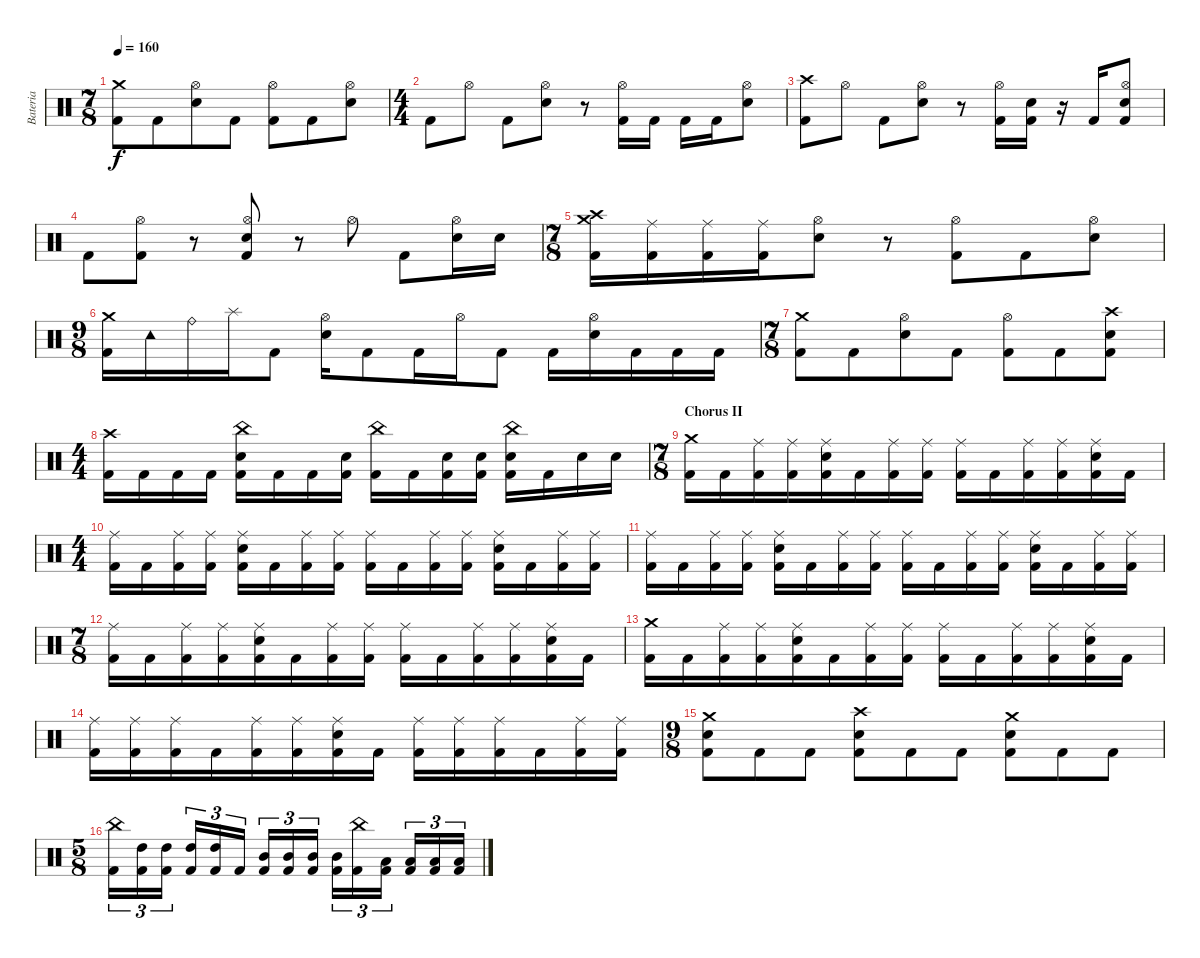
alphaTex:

\track ("Bateria" "Bateria") {instrument percussion}
\staff {score}
\articulation defaults
\ts (7 8)
\tempo 160
\clef neutral
\ks c
("Crash medium (hit)" "Kick (hit) 2").8{dy f} "Kick (hit) 2".8 ("Hi-Hat (open)" "Electric Snare (hit)").8 "Kick (hit) 2".8 ("Hi-Hat (open)" "Kick (hit) 2").8 "Kick (hit) 2".8 ("Hi-Hat (open)" "Electric Snare (hit)").8 |
\ts (4 4)
"Kick (hit) 2".8 "Hi-Hat (open)".8 "Kick (hit) 2".8 ("Hi-Hat (open)" "Electric Snare (hit)").8 r.8 ("Hi-Hat (open)" "Kick (hit) 2").16 "Kick (hit) 2".16 "Kick (hit) 2".16 "Kick (hit) 2".16 ("Hi-Hat (open)" "Electric Snare (hit)").8 |
("Crash high (hit)" "Kick (hit) 2").8 "Hi-Hat (open)".8 "Kick (hit) 2".8 ("Hi-Hat (open)" "Electric Snare (hit)").8 r.8 ("Hi-Hat (open)" "Kick (hit) 2").16 ("Electric Snare (hit)" "Kick (hit) 2").16 r.16 "Kick (hit) 2".16 ("Hi-Hat (open)" "Electric Snare (hit)" "Kick (hit) 2").8 |
"Kick (hit) 2".8 ("Hi-Hat (open)" "Kick (hit) 2").8 r.8 ("Hi-Hat (open)" "Electric Snare (hit)" "Kick (hit) 2").8 r.8 "Hi-Hat (open)".8 "Kick (hit) 2".8 ("Hi-Hat (open)" "Electric Snare (hit)").16 "Electric Snare (hit)".16 |
\ts (7 8)
("Crash medium (hit)" "Crash high (hit)" "Kick (hit) 2").16 ("Ride (middle)" "Kick (hit) 2").16 ("Ride (middle)" "Kick (hit) 2").16 ("Ride (middle)" "Kick (hit) 2").16 ("Hi-Hat (open)" "Electric Snare (hit)").8 r.8 ("Hi-Hat (open)" "Kick (hit) 2").8 "Kick (hit) 2".8 ("Hi-Hat (open)" "Electric Snare (hit)").8 |
\ts (9 8)
("Crash medium (hit)" "Kick (hit) 2").16 "Tambourine (hit)".16 "Ride (bell)".16 "Splash (hit)".16 "Kick (hit) 2".8 ("Hi-Hat (open)" "Electric Snare (hit)").16 "Kick (hit) 2".8 "Kick (hit) 2".16 "Hi-Hat (open)".16 "Kick (hit) 2".8 "Kick (hit) 2".16 ("Hi-Hat (open)" "Electric Snare (hit)").16 "Kick (hit) 2".16 "Kick (hit) 2".16 "Kick (hit) 2".16 |
\ts (7 8)
("Crash medium (hit)" "Kick (hit) 2").8 "Kick (hit) 2".8 ("Hi-Hat (open)" "Electric Snare (hit)").8 "Kick (hit) 2".8 ("Hi-Hat (open)" "Kick (hit) 2").8 "Kick (hit) 2".8 ("Crash high (hit)" "Electric Snare (hit)" "Kick (hit) 2").8 |
\ts (4 4)
("Crash high (hit)" "Kick (hit) 2").16 "Kick (hit) 2".16 "Kick (hit) 2".16 "Kick (hit) 2".16 ("China (hit)" "Electric Snare (hit)" "Kick (hit) 2").16 "Kick (hit) 2".16 "Kick (hit) 2".16 ("Electric Snare (hit)" "Kick (hit) 2").16 ("China (hit)" "Kick (hit) 2").16 "Kick (hit) 2".16 ("Electric Snare (hit)" "Kick (hit) 2").16 ("Electric Snare (hit)" "Kick (hit) 2").16 ("China (hit)" "Electric Snare (hit)" "Kick (hit) 2").16 "Kick (hit) 2".16 "Electric Snare (hit)".16 "Electric Snare (hit)".16 |
\ts (7 8)
\section ("" "Chorus II")
("Crash medium (hit)" "Kick (hit) 2").16 "Kick (hit) 2".16 ("Ride (middle)" "Kick (hit) 2").16 ("Ride (middle)" "Kick (hit) 2").16 ("Ride (middle)" "Electric Snare (hit)" "Kick (hit) 2").16 "Kick (hit) 2".16 ("Ride (middle)" "Kick (hit) 2").16 ("Ride (middle)" "Kick (hit) 2").16 ("Ride (middle)" "Kick (hit) 2").16 "Kick (hit) 2".16 ("Ride (middle)" "Kick (hit) 2").16 ("Ride (middle)" "Kick (hit) 2").16 ("Ride (middle)" "Electric Snare (hit)" "Kick (hit) 2").16 "Kick (hit) 2".16 |
\ts (4 4)
("Ride (middle)" "Kick (hit) 2").16 "Kick (hit) 2".16 ("Ride (middle)" "Kick (hit) 2").16 ("Ride (middle)" "Kick (hit) 2").16 ("Ride (middle)" "Electric Snare (hit)" "Kick (hit) 2").16 "Kick (hit) 2".16 ("Ride (middle)" "Kick (hit) 2").16 ("Ride (middle)" "Kick (hit) 2").16 ("Ride (middle)" "Kick (hit) 2").16 "Kick (hit) 2".16 ("Ride (middle)" "Kick (hit) 2").16 ("Ride (middle)" "Kick (hit) 2").16 ("Ride (middle)" "Electric Snare (hit)" "Kick (hit) 2").16 "Kick (hit) 2".16 ("Ride (middle)" "Kick (hit) 2").16 ("Ride (middle)" "Kick (hit) 2").16 |
("Ride (middle)" "Kick (hit) 2").16 "Kick (hit) 2".16 ("Ride (middle)" "Kick (hit) 2").16 ("Ride (middle)" "Kick (hit) 2").16 ("Ride (middle)" "Electric Snare (hit)" "Kick (hit) 2").16 "Kick (hit) 2".16 ("Ride (middle)" "Kick (hit) 2").16 ("Ride (middle)" "Kick (hit) 2").16 ("Ride (middle)" "Kick (hit) 2").16 "Kick (hit) 2".16 ("Ride (middle)" "Kick (hit) 2").16 ("Ride (middle)" "Kick (hit) 2").16 ("Ride (middle)" "Electric Snare (hit)" "Kick (hit) 2").16 "Kick (hit) 2".16 ("Ride (middle)" "Kick (hit) 2").16 ("Ride (middle)" "Kick (hit) 2").16 |
\ts (7 8)
("Ride (middle)" "Kick (hit) 2").16 "Kick (hit) 2".16 ("Ride (middle)" "Kick (hit) 2").16 ("Ride (middle)" "Kick (hit) 2").16 ("Ride (middle)" "Electric Snare (hit)" "Kick (hit) 2").16 "Kick (hit) 2".16 ("Ride (middle)" "Kick (hit) 2").16 ("Ride (middle)" "Kick (hit) 2").16 ("Ride (middle)" "Kick (hit) 2").16 "Kick (hit) 2".16 ("Ride (middle)" "Kick (hit) 2").16 ("Ride (middle)" "Kick (hit) 2").16 ("Ride (middle)" "Electric Snare (hit)" "Kick (hit) 2").16 "Kick (hit) 2".16 |
("Crash medium (hit)" "Kick (hit) 2").16 "Kick (hit) 2".16 ("Ride (middle)" "Kick (hit) 2").16 ("Ride (middle)" "Kick (hit) 2").16 ("Ride (middle)" "Electric Snare (hit)" "Kick (hit) 2").16 "Kick (hit) 2".16 ("Ride (middle)" "Kick (hit) 2").16 ("Ride (middle)" "Kick (hit) 2").16 ("Ride (middle)" "Kick (hit) 2").16 "Kick (hit) 2".16 ("Ride (middle)" "Kick (hit) 2").16 ("Ride (middle)" "Kick (hit) 2").16 ("Ride (middle)" "Electric Snare (hit)" "Kick (hit) 2").16 "Kick (hit) 2".16 |
("Ride (middle)" "Kick (hit) 2").16 ("Ride (middle)" "Kick (hit) 2").16 ("Ride (middle)" "Kick (hit) 2").16 "Kick (hit) 2".16 ("Ride (middle)" "Kick (hit) 2").16 ("Ride (middle)" "Kick (hit) 2").16 ("Ride (middle)" "Electric Snare (hit)" "Kick (hit) 2").16 "Kick (hit) 2".16 ("Ride (middle)" "Kick (hit) 2").16 ("Ride (middle)" "Kick (hit) 2").16 ("Ride (middle)" "Kick (hit) 2").16 "Kick (hit) 2".16 ("Ride (middle)" "Kick (hit) 2").16 ("Ride (middle)" "Kick (hit) 2").16 |
\ts (9 8)
("Crash medium (hit)" "Electric Snare (hit)" "Kick (hit) 2").8 "Kick (hit) 2".8 "Kick (hit) 2".8 ("Crash high (hit)" "Electric Snare (hit)" "Kick (hit) 2").8 "Kick (hit) 2".8 "Kick (hit) 2".8 ("Crash medium (hit)" "Electric Snare (hit)" "Kick (hit) 2").8 "Kick (hit) 2".8 "Kick (hit) 2".8 |
\ts (5 8)
("China (hit)" "Kick (hit) 2").16{tu (3 2)} ("High Tom (hit)" "Kick (hit) 2").16{tu (3 2)} ("High Tom (hit)" "Kick (hit) 2").16{tu (3 2)} ("High Tom (hit)" "Kick (hit) 2").16{tu (3 2)} ("High Tom (hit)" "Kick (hit) 2").16{tu (3 2)} "Kick (hit) 2".16{tu (3 2)} ("Mid Tom (hit)" "Kick (hit) 2").16{tu (3 2)} ("Mid Tom (hit)" "Kick (hit) 2").16{tu (3 2)} ("Mid Tom (hit)" "Kick (hit) 2").16{tu (3 2)} ("Mid Tom (hit)" "Kick (hit) 2").16{tu (3 2)} ("China (hit)" "Kick (hit) 2").16{tu (3 2)} ("Low Tom (hit)" "Kick (hit) 2").16{tu (3 2)} ("Low Tom (hit)" "Kick (hit) 2").16{tu (3 2)} ("Low Tom (hit)" "Kick (hit) 2").16{tu (3 2)} ("Low Tom (hit)" "Kick (hit) 2").16{tu (3 2)}
